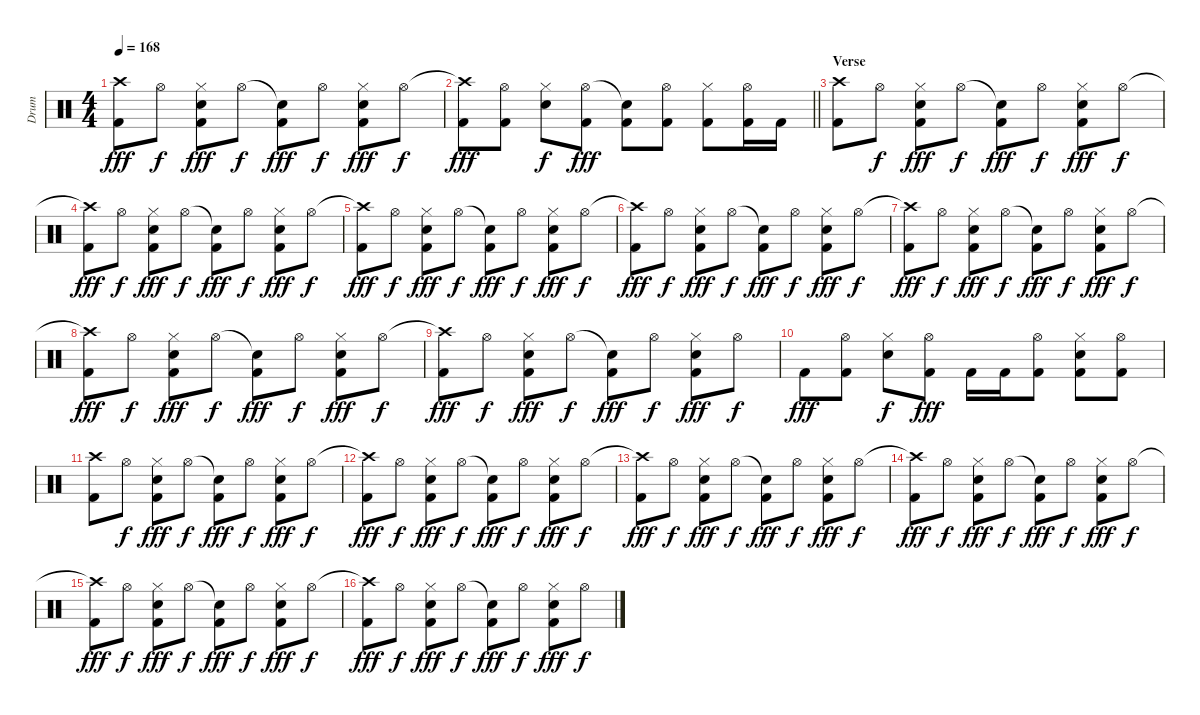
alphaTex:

\track ("Drum" "Drum") {instrument percussion}
\staff {score}
\articulation defaults
\ts (4 4)
\tempo 168
\clef neutral
\ks c
("Crash high (hit)"{t} "Kick (hit) 2").8{dy fff} "Hi-Hat (open)".8{dy f} ("Hi-Hat (closed)" "Snare (hit) 2" "Kick (hit) 2").8{dy fff} "Hi-Hat (open)".8{dy f} ("Snare (hit)"{t} "Kick (hit) 2").8{dy fff} "Hi-Hat (open)".8{dy f} ("Hi-Hat (closed)" "Snare (hit) 2" "Kick (hit) 2").8{dy fff} "Hi-Hat (open)".8{dy f} |
\barLineRight lightlight
("Crash high (hit)"{t} "Kick (hit) 2").8{dy fff} ("Hi-Hat (open)" "Kick (hit) 2").8 ("Hi-Hat (closed)" "Snare (hit) 2").8{dy f} ("Hi-Hat (open)" "Kick (hit) 2").8{dy fff} ("Snare (hit)"{t} "Kick (hit) 2").8 ("Hi-Hat (open)" "Kick (hit) 2").8 ("Hi-Hat (closed)" "Kick (hit) 2").8 ("Hi-Hat (open)" "Kick (hit) 2").16 "Kick (hit) 2".16 |
\section ("" "Verse")
("Crash high (hit)" "Kick (hit) 2").8 "Hi-Hat (open)".8{dy f} ("Hi-Hat (closed)" "Snare (hit) 2" "Kick (hit) 2").8{dy fff} "Hi-Hat (open)".8{dy f} ("Snare (hit)"{t} "Kick (hit) 2").8{dy fff} "Hi-Hat (open)".8{dy f} ("Hi-Hat (closed)" "Snare (hit) 2" "Kick (hit) 2").8{dy fff} "Hi-Hat (open)".8{dy f} |
("Crash high (hit)"{t} "Kick (hit) 2").8{dy fff} "Hi-Hat (open)".8{dy f} ("Hi-Hat (closed)" "Snare (hit) 2" "Kick (hit) 2").8{dy fff} "Hi-Hat (open)".8{dy f} ("Snare (hit)"{t} "Kick (hit) 2").8{dy fff} "Hi-Hat (open)".8{dy f} ("Hi-Hat (closed)" "Snare (hit) 2" "Kick (hit) 2").8{dy fff} "Hi-Hat (open)".8{dy f} |
("Crash high (hit)"{t} "Kick (hit) 2").8{dy fff} "Hi-Hat (open)".8{dy f} ("Hi-Hat (closed)" "Snare (hit) 2" "Kick (hit) 2").8{dy fff} "Hi-Hat (open)".8{dy f} ("Snare (hit)"{t} "Kick (hit) 2").8{dy fff} "Hi-Hat (open)".8{dy f} ("Hi-Hat (closed)" "Snare (hit) 2" "Kick (hit) 2").8{dy fff} "Hi-Hat (open)".8{dy f} |
("Crash high (hit)"{t} "Kick (hit) 2").8{dy fff} "Hi-Hat (open)".8{dy f} ("Hi-Hat (closed)" "Snare (hit) 2" "Kick (hit) 2").8{dy fff} "Hi-Hat (open)".8{dy f} ("Snare (hit)"{t} "Kick (hit) 2").8{dy fff} "Hi-Hat (open)".8{dy f} ("Hi-Hat (closed)" "Snare (hit) 2" "Kick (hit) 2").8{dy fff} "Hi-Hat (open)".8{dy f} |
("Crash high (hit)"{t} "Kick (hit) 2").8{dy fff} "Hi-Hat (open)".8{dy f} ("Hi-Hat (closed)" "Snare (hit) 2" "Kick (hit) 2").8{dy fff} "Hi-Hat (open)".8{dy f} ("Snare (hit)"{t} "Kick (hit) 2").8{dy fff} "Hi-Hat (open)".8{dy f} ("Hi-Hat (closed)" "Snare (hit) 2" "Kick (hit) 2").8{dy fff} "Hi-Hat (open)".8{dy f} |
("Crash high (hit)"{t} "Kick (hit) 2").8{dy fff} "Hi-Hat (open)".8{dy f} ("Hi-Hat (closed)" "Snare (hit) 2" "Kick (hit) 2").8{dy fff} "Hi-Hat (open)".8{dy f} ("Snare (hit)"{t} "Kick (hit) 2").8{dy fff} "Hi-Hat (open)".8{dy f} ("Hi-Hat (closed)" "Snare (hit) 2" "Kick (hit) 2").8{dy fff} "Hi-Hat (open)".8{dy f} |
("Crash high (hit)"{t} "Kick (hit) 2").8{dy fff} "Hi-Hat (open)".8{dy f} ("Hi-Hat (closed)" "Snare (hit) 2" "Kick (hit) 2").8{dy fff} "Hi-Hat (open)".8{dy f} ("Snare (hit)"{t} "Kick (hit) 2").8{dy fff} "Hi-Hat (open)".8{dy f} ("Hi-Hat (closed)" "Snare (hit) 2" "Kick (hit) 2").8{dy fff} "Hi-Hat (open)".8{dy f} |
"Kick (hit) 2".8{dy fff} ("Hi-Hat (open)" "Kick (hit) 2").8 ("Hi-Hat (closed)" "Snare (hit) 2").8{dy f} ("Hi-Hat (open)" "Kick (hit) 2").8{dy fff} "Kick (hit) 2".16 "Kick (hit) 2".16 ("Hi-Hat (open)" "Kick (hit) 2").8 ("Hi-Hat (closed)" "Snare (hit) 2" "Kick (hit) 2").8 ("Hi-Hat (open)" "Kick (hit) 2").8 |
("Crash high (hit)" "Kick (hit) 2").8 "Hi-Hat (open)".8{dy f} ("Hi-Hat (closed)" "Snare (hit) 2" "Kick (hit) 2").8{dy fff} "Hi-Hat (open)".8{dy f} ("Snare (hit)"{t} "Kick (hit) 2").8{dy fff} "Hi-Hat (open)".8{dy f} ("Hi-Hat (closed)" "Snare (hit) 2" "Kick (hit) 2").8{dy fff} "Hi-Hat (open)".8{dy f} |
("Crash high (hit)"{t} "Kick (hit) 2").8{dy fff} "Hi-Hat (open)".8{dy f} ("Hi-Hat (closed)" "Snare (hit) 2" "Kick (hit) 2").8{dy fff} "Hi-Hat (open)".8{dy f} ("Snare (hit)"{t} "Kick (hit) 2").8{dy fff} "Hi-Hat (open)".8{dy f} ("Hi-Hat (closed)" "Snare (hit) 2" "Kick (hit) 2").8{dy fff} "Hi-Hat (open)".8{dy f} |
("Crash high (hit)"{t} "Kick (hit) 2").8{dy fff} "Hi-Hat (open)".8{dy f} ("Hi-Hat (closed)" "Snare (hit) 2" "Kick (hit) 2").8{dy fff} "Hi-Hat (open)".8{dy f} ("Snare (hit)"{t} "Kick (hit) 2").8{dy fff} "Hi-Hat (open)".8{dy f} ("Hi-Hat (closed)" "Snare (hit) 2" "Kick (hit) 2").8{dy fff} "Hi-Hat (open)".8{dy f} |
("Crash high (hit)"{t} "Kick (hit) 2").8{dy fff} "Hi-Hat (open)".8{dy f} ("Hi-Hat (closed)" "Snare (hit) 2" "Kick (hit) 2").8{dy fff} "Hi-Hat (open)".8{dy f} ("Snare (hit)"{t} "Kick (hit) 2").8{dy fff} "Hi-Hat (open)".8{dy f} ("Hi-Hat (closed)" "Snare (hit) 2" "Kick (hit) 2").8{dy fff} "Hi-Hat (open)".8{dy f} |
("Crash high (hit)"{t} "Kick (hit) 2").8{dy fff} "Hi-Hat (open)".8{dy f} ("Hi-Hat (closed)" "Snare (hit) 2" "Kick (hit) 2").8{dy fff} "Hi-Hat (open)".8{dy f} ("Snare (hit)"{t} "Kick (hit) 2").8{dy fff} "Hi-Hat (open)".8{dy f} ("Hi-Hat (closed)" "Snare (hit) 2" "Kick (hit) 2").8{dy fff} "Hi-Hat (open)".8{dy f} |
("Crash high (hit)"{t} "Kick (hit) 2").8{dy fff} "Hi-Hat (open)".8{dy f} ("Hi-Hat (closed)" "Snare (hit) 2" "Kick (hit) 2").8{dy fff} "Hi-Hat (open)".8{dy f} ("Snare (hit)"{t} "Kick (hit) 2").8{dy fff} "Hi-Hat (open)".8{dy f} ("Hi-Hat (closed)" "Snare (hit) 2" "Kick (hit) 2").8{dy fff} "Hi-Hat (open)".8{dy f}
